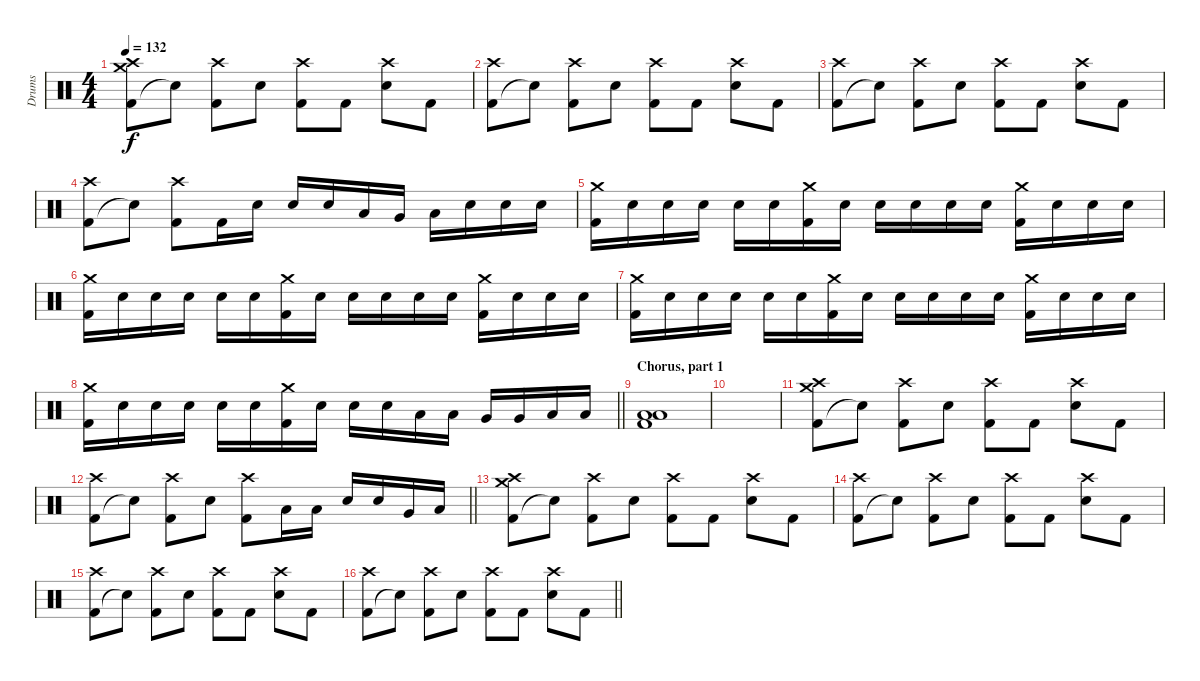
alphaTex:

\track ("Drums" "Drums") {instrument percussion}
\staff {score}
\articulation defaults
\ts (4 4)
\tempo 132
\clef neutral
\ks c
("Kick (hit) 2" "Crash medium (hit)" "Crash high (hit)").8{dy f} "Snare (hit)"{t}.8 ("Kick (hit) 2" "Crash high (hit)").8 "Electric Snare (hit)".8 ("Kick (hit) 2" "Crash high (hit)").8 "Kick (hit) 2".8 ("Electric Snare (hit)" "Crash high (hit)").8 "Kick (hit) 2".8 |
("Kick (hit) 2" "Crash high (hit)").8 "Snare (hit)"{t}.8 ("Kick (hit) 2" "Crash high (hit)").8 "Electric Snare (hit)".8 ("Kick (hit) 2" "Crash high (hit)").8 "Kick (hit) 2".8 ("Electric Snare (hit)" "Crash high (hit)").8 "Kick (hit) 2".8 |
("Kick (hit) 2" "Crash high (hit)").8 "Snare (hit)"{t}.8 ("Kick (hit) 2" "Crash high (hit)").8 "Electric Snare (hit)".8 ("Kick (hit) 2" "Crash high (hit)").8 "Kick (hit) 2".8 ("Electric Snare (hit)" "Crash high (hit)").8 "Kick (hit) 2".8 |
("Kick (hit) 2" "Crash high (hit)").8 "Snare (hit)"{t}.8 ("Kick (hit) 2" "Crash high (hit)").8 "Kick (hit) 2".16 "Electric Snare (hit)".16 "Electric Snare (hit)".16 "Electric Snare (hit)".16 "Low Tom (hit)".16 "Very Low Tom (hit)".16 "Low Floor Tom (hit)".16 "Electric Snare (hit)".16 "Electric Snare (hit)".16 "Electric Snare (hit)".16 |
("Kick (hit) 2" "Crash medium (hit)").16 "Electric Snare (hit)".16 "Electric Snare (hit)".16 "Electric Snare (hit)".16 "Electric Snare (hit)".16 "Electric Snare (hit)".16 ("Kick (hit) 2" "Crash medium (hit)").16 "Electric Snare (hit)".16 "Electric Snare (hit)".16 "Electric Snare (hit)".16 "Electric Snare (hit)".16 "Electric Snare (hit)".16 ("Kick (hit) 2" "Crash medium (hit)").16 "Electric Snare (hit)".16 "Electric Snare (hit)".16 "Electric Snare (hit)".16 |
("Kick (hit) 2" "Crash medium (hit)").16 "Electric Snare (hit)".16 "Electric Snare (hit)".16 "Electric Snare (hit)".16 "Electric Snare (hit)".16 "Electric Snare (hit)".16 ("Kick (hit) 2" "Crash medium (hit)").16 "Electric Snare (hit)".16 "Electric Snare (hit)".16 "Electric Snare (hit)".16 "Electric Snare (hit)".16 "Electric Snare (hit)".16 ("Kick (hit) 2" "Crash medium (hit)").16 "Electric Snare (hit)".16 "Electric Snare (hit)".16 "Electric Snare (hit)".16 |
("Kick (hit) 2" "Crash medium (hit)").16 "Electric Snare (hit)".16 "Electric Snare (hit)".16 "Electric Snare (hit)".16 "Electric Snare (hit)".16 "Electric Snare (hit)".16 ("Kick (hit) 2" "Crash medium (hit)").16 "Electric Snare (hit)".16 "Electric Snare (hit)".16 "Electric Snare (hit)".16 "Electric Snare (hit)".16 "Electric Snare (hit)".16 ("Kick (hit) 2" "Crash medium (hit)").16 "Electric Snare (hit)".16 "Electric Snare (hit)".16 "Electric Snare (hit)".16 |
\barLineRight lightlight
("Kick (hit) 2" "Crash medium (hit)").16 "Electric Snare (hit)".16 "Electric Snare (hit)".16 "Electric Snare (hit)".16 "Electric Snare (hit)".16 "Electric Snare (hit)".16 ("Kick (hit) 2" "Crash medium (hit)").16 "Electric Snare (hit)".16 "Electric Snare (hit)".16 "Electric Snare (hit)".16 "Low Tom (hit)".16 "Low Tom (hit)".16 "Very Low Tom (hit)".16 "Very Low Tom (hit)".16 "Low Floor Tom (hit)".16 "Low Floor Tom (hit)".16 |
\section ("" "Chorus, part 1")
("Low Tom (hit)" "Low Floor Tom (hit)" "Kick (hit) 2").1 |
|
("Kick (hit) 2" "Crash medium (hit)" "Crash high (hit)").8 "Snare (hit)"{t}.8 ("Kick (hit) 2" "Crash high (hit)").8 "Electric Snare (hit)".8 ("Kick (hit) 2" "Crash high (hit)").8 "Kick (hit) 2".8 ("Electric Snare (hit)" "Crash high (hit)").8 "Kick (hit) 2".8 |
\barLineRight lightlight
("Kick (hit) 2" "Crash high (hit)").8 "Snare (hit)"{t}.8 ("Kick (hit) 2" "Crash high (hit)").8 "Electric Snare (hit)".8 ("Kick (hit) 2" "Crash high (hit)").8 "Low Tom (hit)".16 "Low Tom (hit)".16 "Electric Snare (hit)".16 "Electric Snare (hit)".16 "Very Low Tom (hit)".16 "Low Floor Tom (hit)".16 |
("Kick (hit) 2" "Crash medium (hit)" "Crash high (hit)").8 "Snare (hit)"{t}.8 ("Kick (hit) 2" "Crash high (hit)").8 "Electric Snare (hit)".8 ("Kick (hit) 2" "Crash high (hit)").8 "Kick (hit) 2".8 ("Electric Snare (hit)" "Crash high (hit)").8 "Kick (hit) 2".8 |
("Kick (hit) 2" "Crash high (hit)").8 "Snare (hit)"{t}.8 ("Kick (hit) 2" "Crash high (hit)").8 "Electric Snare (hit)".8 ("Kick (hit) 2" "Crash high (hit)").8 "Kick (hit) 2".8 ("Electric Snare (hit)" "Crash high (hit)").8 "Kick (hit) 2".8 |
("Kick (hit) 2" "Crash high (hit)").8 "Snare (hit)"{t}.8 ("Kick (hit) 2" "Crash high (hit)").8 "Electric Snare (hit)".8 ("Kick (hit) 2" "Crash high (hit)").8 "Kick (hit) 2".8 ("Electric Snare (hit)" "Crash high (hit)").8 "Kick (hit) 2".8 |
\barLineRight lightlight
("Kick (hit) 2" "Crash high (hit)").8 "Snare (hit)"{t}.8 ("Kick (hit) 2" "Crash high (hit)").8 "Electric Snare (hit)".8 ("Kick (hit) 2" "Crash high (hit)").8 "Kick (hit) 2".8 ("Electric Snare (hit)" "Crash high (hit)").8 "Kick (hit) 2".8
